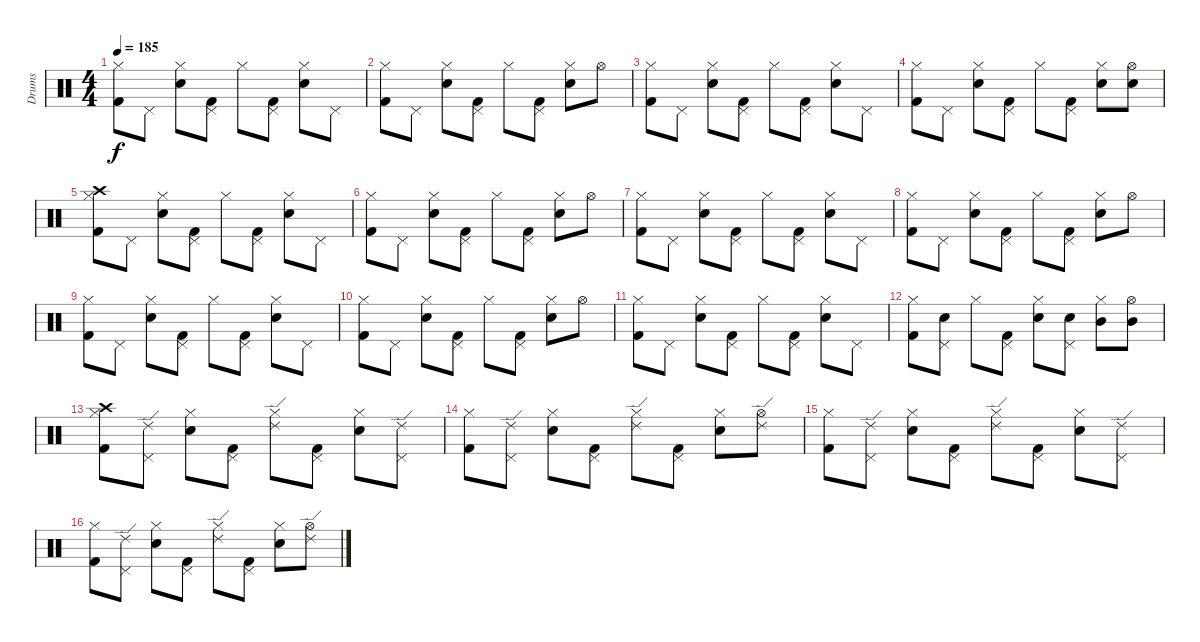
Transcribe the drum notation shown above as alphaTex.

\track ("Drums" "Drums") {instrument percussion}
\staff {score}
\articulation defaults
\ts (4 4)
\tempo 185
\clef neutral
\ks c
("Kick (hit) 2" "Hi-Hat (closed)").8{dy f} "Pedal Hi-Hat (hit)".8 ("Electric Snare (hit)" "Hi-Hat (closed)").8 ("Kick (hit) 2" "Pedal Hi-Hat (hit)").8 "Hi-Hat (closed)".8 ("Kick (hit) 2" "Pedal Hi-Hat (hit)").8 ("Electric Snare (hit)" "Hi-Hat (closed)").8 "Pedal Hi-Hat (hit)".8 |
("Kick (hit) 2" "Hi-Hat (closed)").8 "Pedal Hi-Hat (hit)".8 ("Electric Snare (hit)" "Hi-Hat (closed)").8 ("Kick (hit) 2" "Pedal Hi-Hat (hit)").8 "Hi-Hat (closed)".8 ("Kick (hit) 2" "Pedal Hi-Hat (hit)").8 ("Electric Snare (hit)" "Hi-Hat (closed)").8 "Hi-Hat (open)".8 |
("Kick (hit) 2" "Hi-Hat (closed)").8 "Pedal Hi-Hat (hit)".8 ("Electric Snare (hit)" "Hi-Hat (closed)").8 ("Kick (hit) 2" "Pedal Hi-Hat (hit)").8 "Hi-Hat (closed)".8 ("Kick (hit) 2" "Pedal Hi-Hat (hit)").8 ("Electric Snare (hit)" "Hi-Hat (closed)").8 "Pedal Hi-Hat (hit)".8 |
("Kick (hit) 2" "Hi-Hat (closed)").8 "Pedal Hi-Hat (hit)".8 ("Electric Snare (hit)" "Hi-Hat (closed)").8 ("Kick (hit) 2" "Pedal Hi-Hat (hit)").8 "Hi-Hat (closed)".8 ("Kick (hit) 2" "Pedal Hi-Hat (hit)").8 ("Electric Snare (hit)" "Hi-Hat (closed)").8 ("Electric Snare (hit)" "Hi-Hat (open)").8 |
("Kick (hit) 2" "Crash high (hit)" "Hi-Hat (closed)").8 "Pedal Hi-Hat (hit)".8 ("Electric Snare (hit)" "Hi-Hat (closed)").8 ("Kick (hit) 2" "Pedal Hi-Hat (hit)").8 "Hi-Hat (closed)".8 ("Kick (hit) 2" "Pedal Hi-Hat (hit)").8 ("Electric Snare (hit)" "Hi-Hat (closed)").8 "Pedal Hi-Hat (hit)".8 |
("Kick (hit) 2" "Hi-Hat (closed)").8 "Pedal Hi-Hat (hit)".8 ("Electric Snare (hit)" "Hi-Hat (closed)").8 ("Kick (hit) 2" "Pedal Hi-Hat (hit)").8 "Hi-Hat (closed)".8 ("Kick (hit) 2" "Pedal Hi-Hat (hit)").8 ("Electric Snare (hit)" "Hi-Hat (closed)").8 "Hi-Hat (open)".8 |
("Kick (hit) 2" "Hi-Hat (closed)").8 "Pedal Hi-Hat (hit)".8 ("Electric Snare (hit)" "Hi-Hat (closed)").8 ("Kick (hit) 2" "Pedal Hi-Hat (hit)").8 "Hi-Hat (closed)".8 ("Kick (hit) 2" "Pedal Hi-Hat (hit)").8 ("Electric Snare (hit)" "Hi-Hat (closed)").8 "Pedal Hi-Hat (hit)".8 |
("Kick (hit) 2" "Hi-Hat (closed)").8 "Pedal Hi-Hat (hit)".8 ("Electric Snare (hit)" "Hi-Hat (closed)").8 ("Kick (hit) 2" "Pedal Hi-Hat (hit)").8 "Hi-Hat (closed)".8 ("Kick (hit) 2" "Pedal Hi-Hat (hit)").8 ("Electric Snare (hit)" "Hi-Hat (closed)").8 "Hi-Hat (open)".8 |
("Kick (hit) 2" "Hi-Hat (closed)").8 "Pedal Hi-Hat (hit)".8 ("Electric Snare (hit)" "Hi-Hat (closed)").8 ("Kick (hit) 2" "Pedal Hi-Hat (hit)").8 "Hi-Hat (closed)".8 ("Kick (hit) 2" "Pedal Hi-Hat (hit)").8 ("Electric Snare (hit)" "Hi-Hat (closed)").8 "Pedal Hi-Hat (hit)".8 |
("Kick (hit) 2" "Hi-Hat (closed)").8 "Pedal Hi-Hat (hit)".8 ("Electric Snare (hit)" "Hi-Hat (closed)").8 ("Kick (hit) 2" "Pedal Hi-Hat (hit)").8 "Hi-Hat (closed)".8 ("Kick (hit) 2" "Pedal Hi-Hat (hit)").8 ("Electric Snare (hit)" "Hi-Hat (closed)").8 "Hi-Hat (open)".8 |
("Kick (hit) 2" "Hi-Hat (closed)").8 "Pedal Hi-Hat (hit)".8 ("Electric Snare (hit)" "Hi-Hat (closed)").8 ("Kick (hit) 2" "Pedal Hi-Hat (hit)").8 "Hi-Hat (closed)".8 ("Kick (hit) 2" "Pedal Hi-Hat (hit)").8 ("Electric Snare (hit)" "Hi-Hat (closed)").8 "Pedal Hi-Hat (hit)".8 |
("Kick (hit) 2" "Hi-Hat (closed)").8 ("Electric Snare (hit)" "Pedal Hi-Hat (hit)").8 "Hi-Hat (closed)".8 ("Kick (hit) 2" "Pedal Hi-Hat (hit)").8 ("Electric Snare (hit)" "Hi-Hat (closed)").8 ("Electric Snare (hit)" "Pedal Hi-Hat (hit)").8 ("Mid Tom (hit)" "Hi-Hat (closed)").8 ("Mid Tom (hit)" "Hi-Hat (open)").8 |
("Kick (hit) 2" "Crash high (hit)" "Hi-Hat (closed)").8 ("Ride (edge) 2" "Pedal Hi-Hat (hit)").8 ("Electric Snare (hit)" "Hi-Hat (closed)").8 ("Kick (hit) 2" "Pedal Hi-Hat (hit)").8 ("Ride (edge) 2" "Hi-Hat (closed)").8 ("Kick (hit) 2" "Pedal Hi-Hat (hit)").8 ("Electric Snare (hit)" "Hi-Hat (closed)").8 ("Ride (edge) 2" "Pedal Hi-Hat (hit)").8 |
("Kick (hit) 2" "Hi-Hat (closed)").8 ("Ride (edge) 2" "Pedal Hi-Hat (hit)").8 ("Electric Snare (hit)" "Hi-Hat (closed)").8 ("Kick (hit) 2" "Pedal Hi-Hat (hit)").8 ("Ride (edge) 2" "Hi-Hat (closed)").8 ("Kick (hit) 2" "Pedal Hi-Hat (hit)").8 ("Electric Snare (hit)" "Hi-Hat (closed)").8 ("Ride (edge) 2" "Hi-Hat (open)").8 |
("Kick (hit) 2" "Hi-Hat (closed)").8 ("Ride (edge) 2" "Pedal Hi-Hat (hit)").8 ("Electric Snare (hit)" "Hi-Hat (closed)").8 ("Kick (hit) 2" "Pedal Hi-Hat (hit)").8 ("Ride (edge) 2" "Hi-Hat (closed)").8 ("Kick (hit) 2" "Pedal Hi-Hat (hit)").8 ("Electric Snare (hit)" "Hi-Hat (closed)").8 ("Ride (edge) 2" "Pedal Hi-Hat (hit)").8 |
("Kick (hit) 2" "Hi-Hat (closed)").8 ("Ride (edge) 2" "Pedal Hi-Hat (hit)").8 ("Electric Snare (hit)" "Hi-Hat (closed)").8 ("Kick (hit) 2" "Pedal Hi-Hat (hit)").8 ("Ride (edge) 2" "Hi-Hat (closed)").8 ("Kick (hit) 2" "Pedal Hi-Hat (hit)").8 ("Electric Snare (hit)" "Hi-Hat (closed)").8 ("Ride (edge) 2" "Hi-Hat (open)").8
